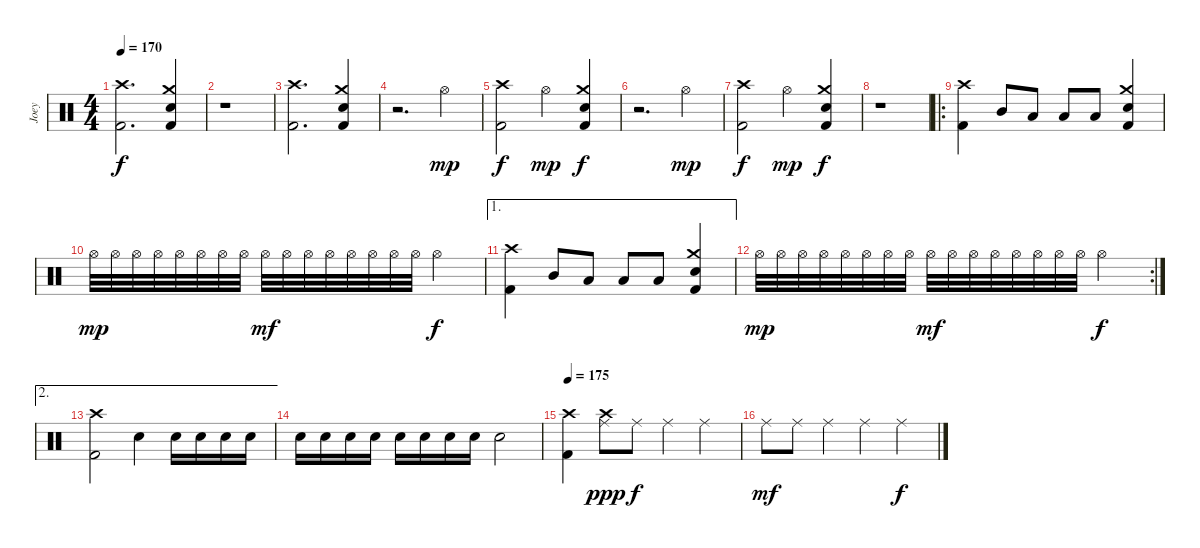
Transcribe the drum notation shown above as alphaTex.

\track ("Joey" "Joey") {instrument percussion}
\staff {score}
\articulation defaults
\ts (4 4)
\tempo 170
\clef neutral
\ks c
("Crash high (hit)" "Kick (hit) 2").2{d dy f} ("Crash medium (hit)" "Electric Snare (hit)" "Kick (hit) 2").4 |
r.1 |
("Crash high (hit)" "Kick (hit) 2").2{d} ("Crash medium (hit)" "Electric Snare (hit)" "Kick (hit) 2").4 |
r.2{d} "Hi-Hat (open)".4{dy mp} |
("Crash high (hit)" "Kick (hit) 2").2{dy f} "Hi-Hat (open)".4{dy mp} ("Crash medium (hit)" "Electric Snare (hit)" "Kick (hit) 2").4{dy f} |
r.2{d} "Hi-Hat (open)".4{dy mp} |
("Crash high (hit)" "Kick (hit) 2").2{dy f} "Hi-Hat (open)".4{dy mp} ("Crash medium (hit)" "Electric Snare (hit)" "Kick (hit) 2").4{dy f} |
r.1 |
\ro
("Crash high (hit)" "Kick (hit) 2").4 "Mid Tom (hit)".8 "Low Tom (hit)".8 "Low Tom (hit)".8 "Low Tom (hit)".8 ("Crash medium (hit)" "Electric Snare (hit)" "Kick (hit) 2").4 |
"Hi-Hat (open)".32{dy mp} "Hi-Hat (open)".32 "Hi-Hat (open)".32 "Hi-Hat (open)".32 "Hi-Hat (open)".32 "Hi-Hat (open)".32 "Hi-Hat (open)".32 "Hi-Hat (open)".32 "Hi-Hat (open)".32{dy mf} "Hi-Hat (open)".32 "Hi-Hat (open)".32 "Hi-Hat (open)".32 "Hi-Hat (open)".32 "Hi-Hat (open)".32 "Hi-Hat (open)".32 "Hi-Hat (open)".32 "Hi-Hat (open)".2{dy f} |
\ae 1
("Crash high (hit)" "Kick (hit) 2").4 "Mid Tom (hit)".8 "Low Tom (hit)".8 "Low Tom (hit)".8 "Low Tom (hit)".8 ("Crash medium (hit)" "Electric Snare (hit)" "Kick (hit) 2").4 |
\rc 2 "Hi-Hat (open)".32{dy mp} "Hi-Hat (open)".32 "Hi-Hat (open)".32 "Hi-Hat (open)".32 "Hi-Hat (open)".32 "Hi-Hat (open)".32 "Hi-Hat (open)".32 "Hi-Hat (open)".32 "Hi-Hat (open)".32{dy mf} "Hi-Hat (open)".32 "Hi-Hat (open)".32 "Hi-Hat (open)".32 "Hi-Hat (open)".32 "Hi-Hat (open)".32 "Hi-Hat (open)".32 "Hi-Hat (open)".32 "Hi-Hat (open)".2{dy f}
|
\ae 2
("Crash high (hit)" "Kick (hit) 2").2 "Electric Snare (hit)".4 "Electric Snare (hit)".16 "Electric Snare (hit)".16 "Electric Snare (hit)".16 "Electric Snare (hit)".16 |
"Electric Snare (hit)".16 "Electric Snare (hit)".16 "Electric Snare (hit)".16 "Electric Snare (hit)".16 "Electric Snare (hit)".16 "Electric Snare (hit)".16 "Electric Snare (hit)".16 "Electric Snare (hit)".16 "Electric Snare (hit)".2 |
\tempo 175
("Crash high (hit)" "Kick (hit) 2").4 ("Crash high (hit)" "Ride (middle)").8{dy ppp} "Ride (middle)".8{dy f} "Ride (middle)".4 "Ride (middle)".4 |
"Ride (middle)".8{dy mf} "Ride (middle)".8 "Ride (middle)".4 "Ride (middle)".4 "Ride (middle)".4{dy f}
